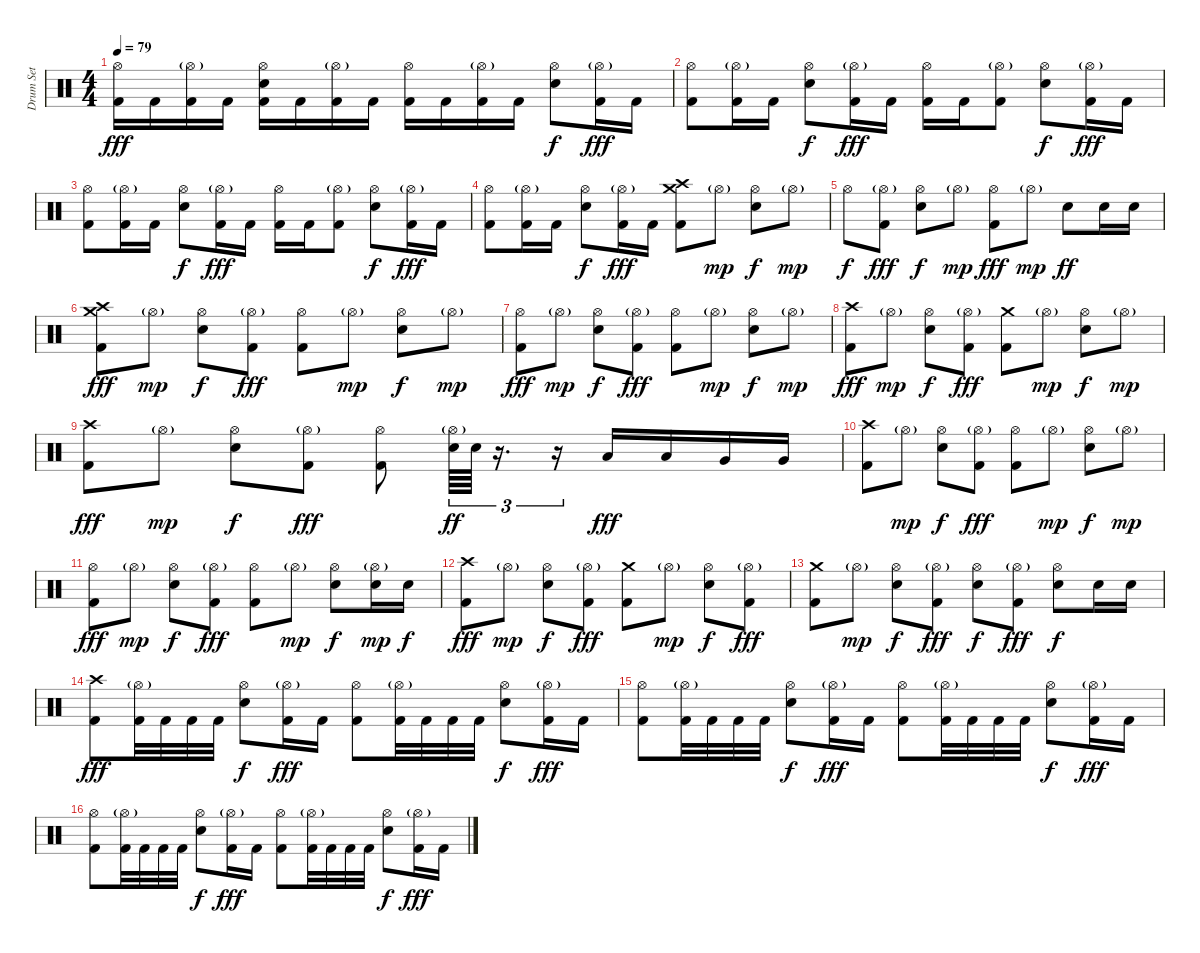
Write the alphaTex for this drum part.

\track ("Drum Set" "Drum Set") {instrument percussion}
\staff {score}
\articulation defaults
\ts (4 4)
\tempo 79
\clef neutral
\ks c
("Hi-Hat (open)" "Kick (hit) 2").16{dy fff} "Kick (hit) 2".16 ("Hi-Hat (open)"{g} "Kick (hit) 2").16 "Kick (hit) 2".16 ("Hi-Hat (open)" "Snare (hit) 2" "Kick (hit) 2").16 "Kick (hit) 2".16 ("Hi-Hat (open)"{g} "Kick (hit) 2").16 "Kick (hit) 2".16 ("Hi-Hat (open)" "Kick (hit) 2").16 "Kick (hit) 2".16 ("Hi-Hat (open)"{g} "Kick (hit) 2").16 "Kick (hit) 2".16 ("Hi-Hat (open)" "Snare (hit) 2").8{dy f} ("Hi-Hat (open)"{g} "Kick (hit) 2").16{dy fff} "Kick (hit) 2".16 |
("Hi-Hat (open)" "Kick (hit) 2").8 ("Hi-Hat (open)"{g} "Kick (hit) 2").16 "Kick (hit) 2".16 ("Hi-Hat (open)" "Snare (hit) 2").8{dy f} ("Hi-Hat (open)"{g} "Kick (hit) 2").16{dy fff} "Kick (hit) 2".16 ("Hi-Hat (open)" "Kick (hit) 2").16 "Kick (hit) 2".16 ("Hi-Hat (open)"{g} "Kick (hit) 2").8 ("Hi-Hat (open)" "Snare (hit) 2").8{dy f} ("Hi-Hat (open)"{g} "Kick (hit) 2").16{dy fff} "Kick (hit) 2".16 |
("Hi-Hat (open)" "Kick (hit) 2").8 ("Hi-Hat (open)"{g} "Kick (hit) 2").16 "Kick (hit) 2".16 ("Hi-Hat (open)" "Snare (hit) 2").8{dy f} ("Hi-Hat (open)"{g} "Kick (hit) 2").16{dy fff} "Kick (hit) 2".16 ("Hi-Hat (open)" "Kick (hit) 2").16 "Kick (hit) 2".16 ("Hi-Hat (open)"{g} "Kick (hit) 2").8 ("Hi-Hat (open)" "Snare (hit) 2").8{dy f} ("Hi-Hat (open)"{g} "Kick (hit) 2").16{dy fff} "Kick (hit) 2".16 |
("Hi-Hat (open)" "Kick (hit) 2").8 ("Hi-Hat (open)"{g} "Kick (hit) 2").16 "Kick (hit) 2".16 ("Hi-Hat (open)" "Snare (hit) 2").8{dy f} ("Hi-Hat (open)"{g} "Kick (hit) 2").16{dy fff} "Kick (hit) 2".16 ("Crash high (hit)" "Crash medium (hit)" "Kick (hit) 2").8 "Hi-Hat (open)"{g}.8{dy mp} ("Hi-Hat (open)" "Snare (hit) 2").8{dy f} "Hi-Hat (open)"{g}.8{dy mp} |
"Hi-Hat (open)".8{dy f} ("Hi-Hat (open)"{g} "Kick (hit) 2").8{dy fff} ("Hi-Hat (open)" "Snare (hit) 2").8{dy f} "Hi-Hat (open)"{g}.8{dy mp} ("Hi-Hat (open)" "Kick (hit) 2").8{dy fff} "Hi-Hat (open)"{g}.8{dy mp} "Snare (hit) 2".8{dy ff} "Snare (hit) 2".16 "Snare (hit) 2".16 |
("Crash high (hit)" "Crash medium (hit)" "Kick (hit) 2").8{dy fff volume 16} "Hi-Hat (open)"{g}.8{dy mp} ("Hi-Hat (open)" "Snare (hit) 2").8{dy f} ("Hi-Hat (open)"{g} "Kick (hit) 2").8{dy fff} ("Hi-Hat (open)" "Kick (hit) 2").8 "Hi-Hat (open)"{g}.8{dy mp} ("Hi-Hat (open)" "Snare (hit) 2").8{dy f} "Hi-Hat (open)"{g}.8{dy mp} |
("Hi-Hat (open)" "Kick (hit) 2").8{dy fff} "Hi-Hat (open)"{g}.8{dy mp} ("Hi-Hat (open)" "Snare (hit) 2").8{dy f} ("Hi-Hat (open)"{g} "Kick (hit) 2").8{dy fff} ("Hi-Hat (open)" "Kick (hit) 2").8 "Hi-Hat (open)"{g}.8{dy mp} ("Hi-Hat (open)" "Snare (hit) 2").8{dy f} "Hi-Hat (open)"{g}.8{dy mp} |
("Crash high (hit)" "Kick (hit) 2").8{dy fff} "Hi-Hat (open)"{g}.8{dy mp} ("Hi-Hat (open)" "Snare (hit) 2").8{dy f} ("Hi-Hat (open)"{g} "Kick (hit) 2").8{dy fff} ("Crash medium (hit)" "Kick (hit) 2").8 "Hi-Hat (open)"{g}.8{dy mp} ("Hi-Hat (open)" "Snare (hit) 2").8{dy f} "Hi-Hat (open)"{g}.8{dy mp} |
("Crash high (hit)" "Kick (hit) 2").8{dy fff} "Hi-Hat (open)"{g}.8{dy mp} ("Hi-Hat (open)" "Snare (hit) 2").8{dy f} ("Hi-Hat (open)"{g} "Kick (hit) 2").8{dy fff} ("Hi-Hat (open)" "Kick (hit) 2").8 ("Hi-Hat (open)"{g} "Snare (hit) 2").64{tu (3 2) dy ff} "Snare (hit) 2".64{tu (3 2)} r.16{d tu (3 2)} r.16{tu (3 2)} "Low Tom (hit)".16{dy fff} "Low Tom (hit)".16 "Very Low Tom (hit)".16 "Very Low Tom (hit)".16 |
("Crash high (hit)" "Kick (hit) 2").8 "Hi-Hat (open)"{g}.8{dy mp} ("Hi-Hat (open)" "Snare (hit) 2").8{dy f} ("Hi-Hat (open)"{g} "Kick (hit) 2").8{dy fff} ("Hi-Hat (open)" "Kick (hit) 2").8 "Hi-Hat (open)"{g}.8{dy mp} ("Hi-Hat (open)" "Snare (hit) 2").8{dy f} "Hi-Hat (open)"{g}.8{dy mp} |
("Hi-Hat (open)" "Kick (hit) 2").8{dy fff} "Hi-Hat (open)"{g}.8{dy mp} ("Hi-Hat (open)" "Snare (hit) 2").8{dy f} ("Hi-Hat (open)"{g} "Kick (hit) 2").8{dy fff} ("Hi-Hat (open)" "Kick (hit) 2").8 "Hi-Hat (open)"{g}.8{dy mp} ("Hi-Hat (open)" "Snare (hit) 2").8{dy f} ("Hi-Hat (open)"{g} "Snare (hit) 2").16{dy mp} "Snare (hit) 2".16{dy f} |
("Crash high (hit)" "Kick (hit) 2").8{dy fff} "Hi-Hat (open)"{g}.8{dy mp} ("Hi-Hat (open)" "Snare (hit) 2").8{dy f} ("Hi-Hat (open)"{g} "Kick (hit) 2").8{dy fff} ("Crash medium (hit)" "Kick (hit) 2").8 "Hi-Hat (open)"{g}.8{dy mp} ("Hi-Hat (open)" "Snare (hit) 2").8{dy f} ("Hi-Hat (open)"{g} "Kick (hit) 2").8{dy fff} |
("Crash medium (hit)" "Kick (hit) 2").8 "Hi-Hat (open)"{g}.8{dy mp} ("Hi-Hat (open)" "Snare (hit) 2").8{dy f} ("Hi-Hat (open)"{g} "Kick (hit) 2").8{dy fff} ("Hi-Hat (open)" "Snare (hit) 2").8{dy f} ("Hi-Hat (open)"{g} "Kick (hit) 2").8{dy fff} ("Hi-Hat (open)" "Snare (hit) 2").8{dy f} "Snare (hit) 2".16 "Snare (hit) 2".16 |
("Crash high (hit)" "Kick (hit) 2").8{dy fff} ("Hi-Hat (open)"{g} "Kick (hit) 2").32 "Kick (hit) 2".32 "Kick (hit) 2".32 "Kick (hit) 2".32 ("Hi-Hat (open)" "Snare (hit) 2").8{dy f} ("Hi-Hat (open)"{g} "Kick (hit) 2").16{dy fff} "Kick (hit) 2".16 ("Hi-Hat (open)" "Kick (hit) 2").8 ("Hi-Hat (open)"{g} "Kick (hit) 2").32 "Kick (hit) 2".32 "Kick (hit) 2".32 "Kick (hit) 2".32 ("Hi-Hat (open)" "Snare (hit) 2").8{dy f} ("Hi-Hat (open)"{g} "Kick (hit) 2").16{dy fff} "Kick (hit) 2".16 |
("Hi-Hat (open)" "Kick (hit) 2").8 ("Hi-Hat (open)"{g} "Kick (hit) 2").32 "Kick (hit) 2".32 "Kick (hit) 2".32 "Kick (hit) 2".32 ("Hi-Hat (open)" "Snare (hit) 2").8{dy f} ("Hi-Hat (open)"{g} "Kick (hit) 2").16{dy fff} "Kick (hit) 2".16 ("Hi-Hat (open)" "Kick (hit) 2").8 ("Hi-Hat (open)"{g} "Kick (hit) 2").32 "Kick (hit) 2".32 "Kick (hit) 2".32 "Kick (hit) 2".32 ("Hi-Hat (open)" "Snare (hit) 2").8{dy f} ("Hi-Hat (open)"{g} "Kick (hit) 2").16{dy fff} "Kick (hit) 2".16 |
("Hi-Hat (open)" "Kick (hit) 2").8 ("Hi-Hat (open)"{g} "Kick (hit) 2").32 "Kick (hit) 2".32 "Kick (hit) 2".32 "Kick (hit) 2".32 ("Hi-Hat (open)" "Snare (hit) 2").8{dy f} ("Hi-Hat (open)"{g} "Kick (hit) 2").16{dy fff} "Kick (hit) 2".16 ("Hi-Hat (open)" "Kick (hit) 2").8 ("Hi-Hat (open)"{g} "Kick (hit) 2").32 "Kick (hit) 2".32 "Kick (hit) 2".32 "Kick (hit) 2".32 ("Hi-Hat (open)" "Snare (hit) 2").8{dy f} ("Hi-Hat (open)"{g} "Kick (hit) 2").16{dy fff} "Kick (hit) 2".16
